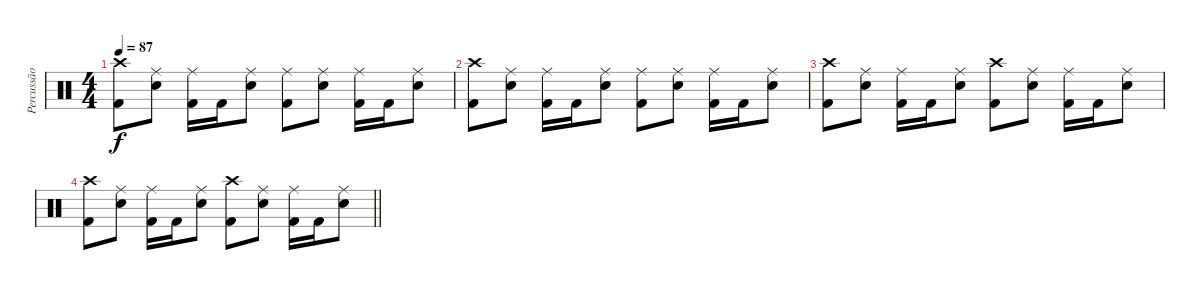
\track ("Percussão" "Percussão") {instrument percussion}
\staff {score}
\articulation defaults
\ts (4 4)
\tempo 87
\clef neutral
\ks c
("Crash high (hit)" "Kick (hit) 2").8{dy f} ("Ride (middle)" "Electric Snare (hit)").8 ("Ride (middle)" "Kick (hit) 2").16 "Kick (hit) 2".16 ("Ride (middle)" "Electric Snare (hit)").8 ("Ride (middle)" "Kick (hit) 2").8 ("Ride (middle)" "Electric Snare (hit)").8 ("Ride (middle)" "Kick (hit) 2").16 "Kick (hit) 2".16 ("Ride (middle)" "Electric Snare (hit)").8 |
("Crash high (hit)" "Kick (hit) 2").8 ("Ride (middle)" "Electric Snare (hit)").8 ("Ride (middle)" "Kick (hit) 2").16 "Kick (hit) 2".16 ("Ride (middle)" "Electric Snare (hit)").8 ("Ride (middle)" "Kick (hit) 2").8 ("Ride (middle)" "Electric Snare (hit)").8 ("Ride (middle)" "Kick (hit) 2").16 "Kick (hit) 2".16 ("Ride (middle)" "Electric Snare (hit)").8 |
("Crash high (hit)" "Kick (hit) 2").8 ("Ride (middle)" "Electric Snare (hit)").8 ("Ride (middle)" "Kick (hit) 2").16 "Kick (hit) 2".16 ("Ride (middle)" "Electric Snare (hit)").8 ("Crash high (hit)" "Kick (hit) 2").8 ("Ride (middle)" "Electric Snare (hit)").8 ("Ride (middle)" "Kick (hit) 2").16 "Kick (hit) 2".16 ("Ride (middle)" "Electric Snare (hit)").8 |
\barLineRight lightlight
("Crash high (hit)" "Kick (hit) 2").8 ("Ride (middle)" "Electric Snare (hit)").8 ("Ride (middle)" "Kick (hit) 2").16 "Kick (hit) 2".16 ("Ride (middle)" "Electric Snare (hit)").8 ("Crash high (hit)" "Kick (hit) 2").8 ("Ride (middle)" "Electric Snare (hit)").8 ("Ride (middle)" "Kick (hit) 2").16 "Kick (hit) 2".16 ("Ride (middle)" "Electric Snare (hit)").8
